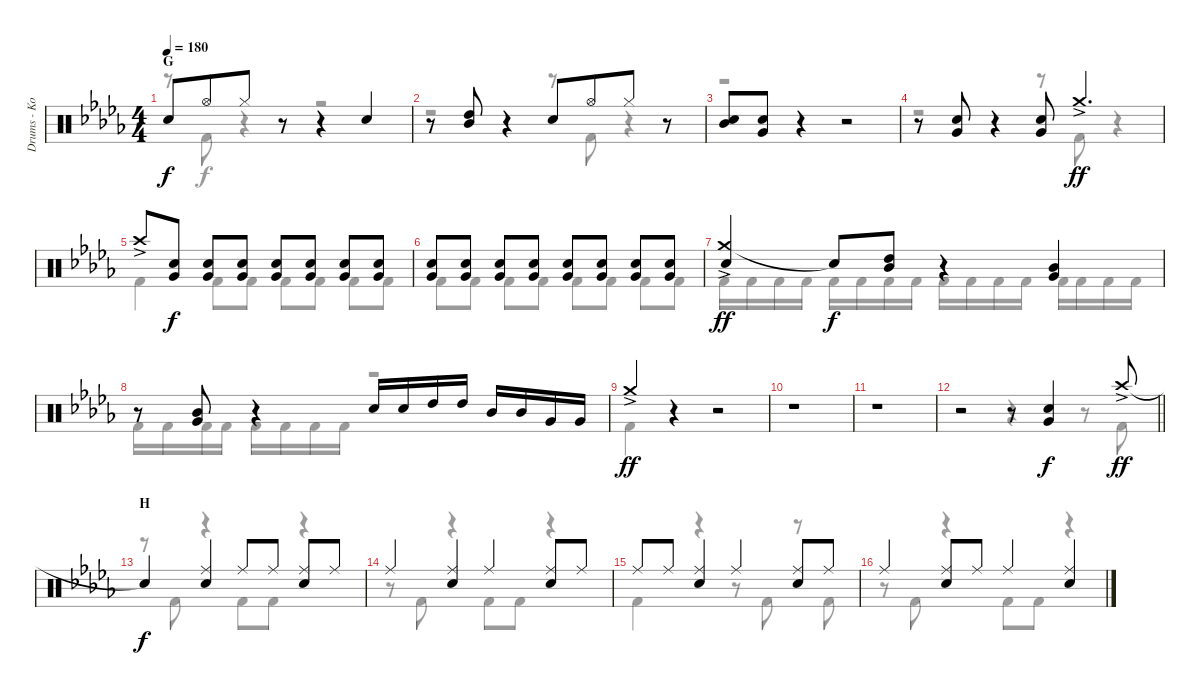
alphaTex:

\track ("Drums - Koji Hasegawa" "Drums - Ko") {instrument percussion}
\staff {score}
\articulation defaults
\voice
\ts (4 4)
\section ("" "G")
\tempo 180
\clef neutral
\ks db "Snare (hit) 2".8{dy f} "Hi-Hat (open)".8{beam merge} "Hi-Hat (closed)".8
r.8 r.4 "Snare (hit) 2".4 |
r.8 ("High Tom (hit)" "Mid Tom (hit)").8 r.4 "Snare (hit) 2".8 "Hi-Hat (open)".8{beam merge} "Hi-Hat (closed)".8 r.8 |
("Mid Tom (hit)" "Snare (hit) 2").8 ("Very Low Tom (hit)" "Snare (hit) 2").8 r.4 r.2 |
r.8 ("Very Low Tom (hit)" "Snare (hit) 2").8 r.4 ("Very Low Tom (hit)" "Snare (hit) 2").8 "Crash medium (hit)"{ac}.4{d dy ff} |
"Crash high (hit)"{ac}.8 ("Very Low Tom (hit)" "Snare (hit) 2").8{dy f} ("Very Low Tom (hit)" "Snare (hit) 2").8 ("Very Low Tom (hit)" "Snare (hit) 2").8 ("Very Low Tom (hit)" "Snare (hit) 2").8 ("Very Low Tom (hit)" "Snare (hit) 2").8 ("Very Low Tom (hit)" "Snare (hit) 2").8 ("Very Low Tom (hit)" "Snare (hit) 2").8 |
("Very Low Tom (hit)" "Snare (hit) 2").8 ("Very Low Tom (hit)" "Snare (hit) 2").8 ("Very Low Tom (hit)" "Snare (hit) 2").8 ("Very Low Tom (hit)" "Snare (hit) 2").8 ("Very Low Tom (hit)" "Snare (hit) 2").8 ("Very Low Tom (hit)" "Snare (hit) 2").8 ("Very Low Tom (hit)" "Snare (hit) 2").8 ("Very Low Tom (hit)" "Snare (hit) 2").8 |
("Crash medium (hit)"{ac} "Snare (hit) 2").4{dy ff} "Snare (hit)"{t}.8{dy f} ("High Tom (hit)" "Mid Tom (hit)").8 r.4 ("Mid Tom (hit)" "Very Low Tom (hit)").4 |
r.8 ("Mid Tom (hit)" "Very Low Tom (hit)").8 r.4 "Snare (hit) 2".16 "Snare (hit) 2".16 "High Tom (hit)".16 "High Tom (hit)".16 "Mid Tom (hit)".16 "Mid Tom (hit)".16 "Very Low Tom (hit)".16 "Very Low Tom (hit)".16 |
"Crash medium (hit)"{ac}.4{dy ff} r.4 r.2 |
r.1 |
r.1 |
\barLineRight lightlight
r.2 r.8 ("Very Low Tom (hit)" "Snare (hit) 2").4{dy f} "Crash high (hit)"{ac}.8{dy ff} |
\section ("" "H")
"Snare (hit)"{t}.4{dy f} ("Ride (middle)" "Snare (hit) 2").4 "Ride (middle)".8 "Ride (middle)".8 ("Ride (middle)" "Snare (hit) 2").8 "Ride (middle)".8 |
"Ride (middle)".4 ("Ride (middle)" "Snare (hit) 2").4 "Ride (middle)".4 ("Ride (middle)" "Snare (hit) 2").8 "Ride (middle)".8 |
"Ride (middle)".8 "Ride (middle)".8 ("Ride (middle)" "Snare (hit) 2").4 "Ride (middle)".4 ("Ride (middle)" "Snare (hit) 2").8 "Ride (middle)".8 |
"Ride (middle)".4 ("Ride (middle)" "Snare (hit) 2").8 "Ride (middle)".8 "Ride (middle)".4 ("Ride (middle)" "Snare (hit) 2").4
\voice
\clef neutral
\ottava regular
\simile none
\ks db
r.8{dy f} "Kick (hit) 2".8 r.4 r.2 |
r.2 r.8 "Kick (hit) 2".8 r.4 |
r.1 |
r.2 r.8 "Kick (hit) 2".8 r.4 |
"Kick (hit) 2".4 "Kick (hit) 2".8 "Kick (hit) 2".8 "Kick (hit) 2".8 "Kick (hit) 2".8 "Kick (hit) 2".8 "Kick (hit) 2".8 |
"Kick (hit) 2".8 "Kick (hit) 2".8 "Kick (hit) 2".8 "Kick (hit) 2".8 "Kick (hit) 2".8 "Kick (hit) 2".8 "Kick (hit) 2".8 "Kick (hit) 2".8 |
"Kick (hit) 2".16 "Kick (hit) 2".16 "Kick (hit) 2".16 "Kick (hit) 2".16 "Kick (hit) 2".16 "Kick (hit) 2".16 "Kick (hit) 2".16 "Kick (hit) 2".16 "Kick (hit) 2".16 "Kick (hit) 2".16 "Kick (hit) 2".16 "Kick (hit) 2".16 "Kick (hit) 2".16 "Kick (hit) 2".16 "Kick (hit) 2".16 "Kick (hit) 2".16 |
"Kick (hit) 2".16 "Kick (hit) 2".16 "Kick (hit) 2".16 "Kick (hit) 2".16 "Kick (hit) 2".16 "Kick (hit) 2".16 "Kick (hit) 2".16 "Kick (hit) 2".16 r.2 |
"Kick (hit) 2".4 r.4 r.2 |
|
|
\barLineRight lightlight
r.2 r.4 r.8 "Kick (hit) 2".8 |
r.8 "Kick (hit) 2".8 r.4 "Kick (hit) 2".8 "Kick (hit) 2".8 r.4 |
r.8 "Kick (hit) 2".8 r.4 "Kick (hit) 2".8 "Kick (hit) 2".8 r.4 |
"Kick (hit) 2".4 r.4 r.8 "Kick (hit) 2".8 r.8 "Kick (hit) 2".8 |
r.8 "Kick (hit) 2".8 r.4 "Kick (hit) 2".8 "Kick (hit) 2".8 r.4
